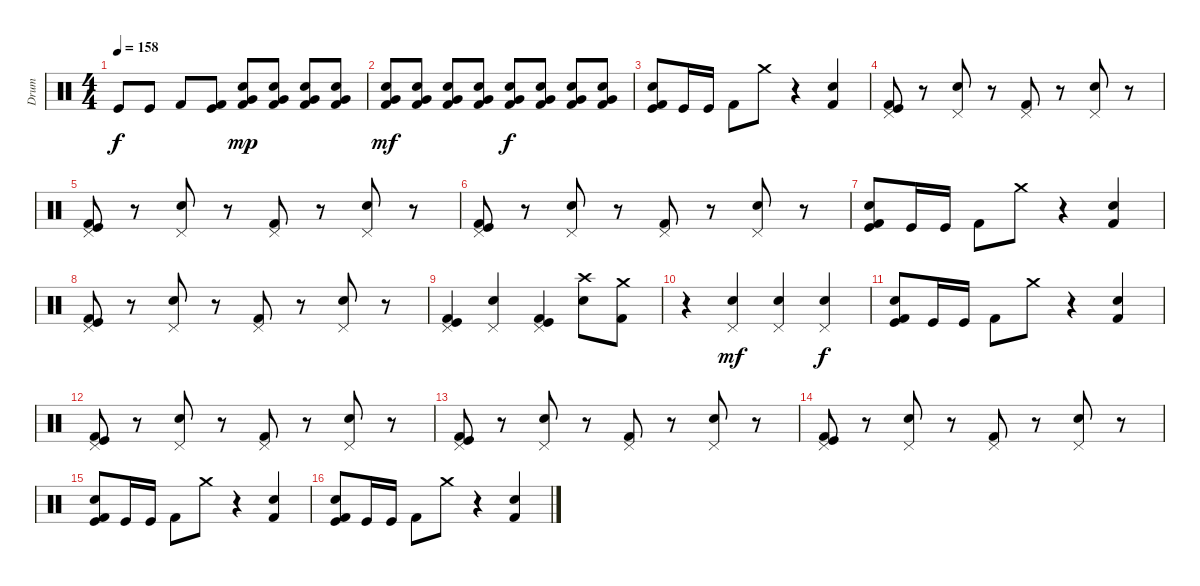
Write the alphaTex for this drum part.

\track ("Drum" "Drum") {instrument percussion}
\staff {score}
\articulation defaults
\ts (4 4)
\tempo 158
\clef neutral
\ks c "Kick (hit)".8{dy f} "Kick (hit)".8 "Kick (hit) 2".8
("Kick (hit) 2" "Kick (hit)").8 ("Kick (hit) 2" "Electric Snare (hit)" "Very Low Tom (hit)").8{dy mp} ("Kick (hit) 2" "Electric Snare (hit)" "Very Low Tom (hit)").8 ("Kick (hit) 2" "Electric Snare (hit)" "Very Low Tom (hit)").8 ("Kick (hit) 2" "Electric Snare (hit)" "Very Low Tom (hit)").8 |
("Kick (hit) 2" "Electric Snare (hit)" "Very Low Tom (hit)").8{dy mf} ("Kick (hit) 2" "Electric Snare (hit)" "Very Low Tom (hit)").8 ("Kick (hit) 2" "Electric Snare (hit)" "Very Low Tom (hit)").8 ("Kick (hit) 2" "Electric Snare (hit)" "Very Low Tom (hit)").8 ("Kick (hit) 2" "Electric Snare (hit)" "Very Low Tom (hit)").8{dy f} ("Kick (hit) 2" "Electric Snare (hit)" "Very Low Tom (hit)").8 ("Kick (hit) 2" "Electric Snare (hit)" "Very Low Tom (hit)").8 ("Kick (hit) 2" "Electric Snare (hit)" "Very Low Tom (hit)").8 |
("Electric Snare (hit)" "Kick (hit) 2" "Kick (hit)").8 "Kick (hit)".16 "Kick (hit)".16 "Kick (hit) 2".8 "Crash medium (hit)".8 r.4 ("Kick (hit) 2" "Electric Snare (hit)").4 |
("Pedal Hi-Hat (hit)" "Kick (hit) 2" "Kick (hit)").8 r.8 ("Electric Snare (hit)" "Pedal Hi-Hat (hit)").8 r.8 ("Pedal Hi-Hat (hit)" "Kick (hit) 2").8 r.8 ("Electric Snare (hit)" "Pedal Hi-Hat (hit)").8 r.8 |
("Pedal Hi-Hat (hit)" "Kick (hit) 2" "Kick (hit)").8 r.8 ("Electric Snare (hit)" "Pedal Hi-Hat (hit)").8 r.8 ("Pedal Hi-Hat (hit)" "Kick (hit) 2").8 r.8 ("Electric Snare (hit)" "Pedal Hi-Hat (hit)").8 r.8 |
("Pedal Hi-Hat (hit)" "Kick (hit) 2" "Kick (hit)").8 r.8 ("Electric Snare (hit)" "Pedal Hi-Hat (hit)").8 r.8 ("Pedal Hi-Hat (hit)" "Kick (hit) 2").8 r.8 ("Electric Snare (hit)" "Pedal Hi-Hat (hit)").8 r.8 |
("Electric Snare (hit)" "Kick (hit) 2" "Kick (hit)").8 "Kick (hit)".16 "Kick (hit)".16 "Kick (hit) 2".8 "Crash medium (hit)".8 r.4 ("Kick (hit) 2" "Electric Snare (hit)").4 |
("Pedal Hi-Hat (hit)" "Kick (hit) 2" "Kick (hit)").8 r.8 ("Electric Snare (hit)" "Pedal Hi-Hat (hit)").8 r.8 ("Pedal Hi-Hat (hit)" "Kick (hit) 2").8 r.8 ("Electric Snare (hit)" "Pedal Hi-Hat (hit)").8 r.8 |
("Pedal Hi-Hat (hit)" "Kick (hit) 2" "Kick (hit)").4 ("Electric Snare (hit)" "Pedal Hi-Hat (hit)").4 ("Kick (hit) 2" "Kick (hit)" "Pedal Hi-Hat (hit)").4 ("Crash high (hit)" "Electric Snare (hit)").8 ("Crash medium (hit)" "Kick (hit) 2").8 |
r.4 ("Pedal Hi-Hat (hit)" "Electric Snare (hit)").4{dy mf} ("Pedal Hi-Hat (hit)" "Electric Snare (hit)").4 ("Pedal Hi-Hat (hit)" "Electric Snare (hit)").4{dy f} |
("Electric Snare (hit)" "Kick (hit) 2" "Kick (hit)").8 "Kick (hit)".16 "Kick (hit)".16 "Kick (hit) 2".8 "Crash medium (hit)".8 r.4 ("Kick (hit) 2" "Electric Snare (hit)").4 |
("Pedal Hi-Hat (hit)" "Kick (hit) 2" "Kick (hit)").8 r.8 ("Electric Snare (hit)" "Pedal Hi-Hat (hit)").8 r.8 ("Pedal Hi-Hat (hit)" "Kick (hit) 2").8 r.8 ("Electric Snare (hit)" "Pedal Hi-Hat (hit)").8 r.8 |
("Pedal Hi-Hat (hit)" "Kick (hit) 2" "Kick (hit)").8 r.8 ("Electric Snare (hit)" "Pedal Hi-Hat (hit)").8 r.8 ("Pedal Hi-Hat (hit)" "Kick (hit) 2").8 r.8 ("Electric Snare (hit)" "Pedal Hi-Hat (hit)").8 r.8 |
("Pedal Hi-Hat (hit)" "Kick (hit) 2" "Kick (hit)").8 r.8 ("Electric Snare (hit)" "Pedal Hi-Hat (hit)").8 r.8 ("Pedal Hi-Hat (hit)" "Kick (hit) 2").8 r.8 ("Electric Snare (hit)" "Pedal Hi-Hat (hit)").8 r.8 |
("Electric Snare (hit)" "Kick (hit) 2" "Kick (hit)").8 "Kick (hit)".16 "Kick (hit)".16 "Kick (hit) 2".8 "Crash medium (hit)".8 r.4 ("Kick (hit) 2" "Electric Snare (hit)").4 |
("Electric Snare (hit)" "Kick (hit) 2" "Kick (hit)").8 "Kick (hit)".16 "Kick (hit)".16 "Kick (hit) 2".8 "Crash medium (hit)".8 r.4 ("Kick (hit) 2" "Electric Snare (hit)").4
